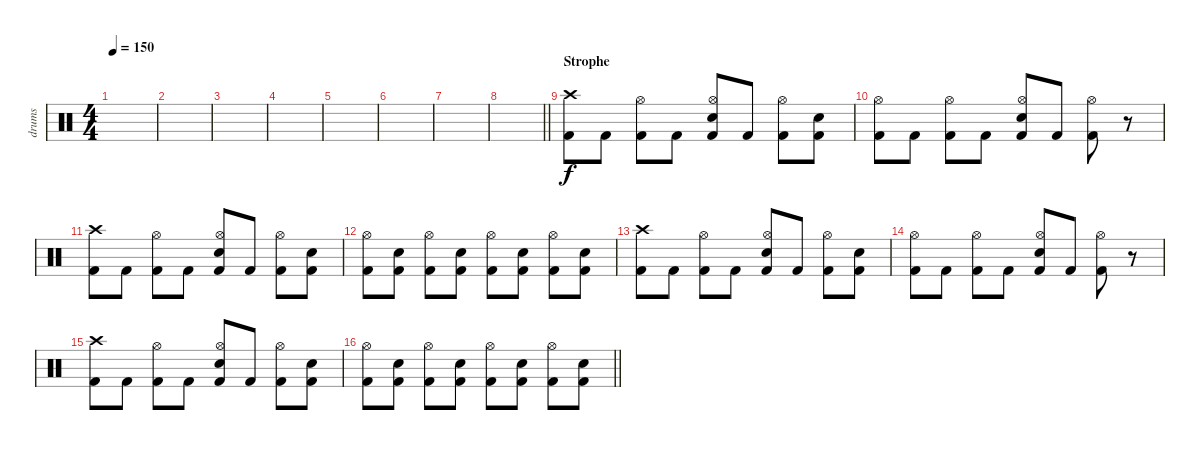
\track ("drums" "drums") {instrument percussion}
\staff {score}
\articulation defaults
\ts (4 4)
\tempo 150
\clef neutral
\ks c
|
|
|
|
|
|
|
\barLineRight lightlight
|
\section ("" "Strophe")
("Kick (hit) 2" "Crash high (hit)").8 "Kick (hit) 2".8 ("Kick (hit) 2" "Hi-Hat (open)").8 "Kick (hit) 2".8 ("Kick (hit) 2" "Snare (hit) 2" "Hi-Hat (open)").8 "Kick (hit) 2".8 ("Kick (hit) 2" "Hi-Hat (open)").8 ("Kick (hit) 2" "Snare (hit) 2").8 |
("Kick (hit) 2" "Hi-Hat (open)").8 "Kick (hit) 2".8 ("Kick (hit) 2" "Hi-Hat (open)").8 "Kick (hit) 2".8 ("Kick (hit) 2" "Snare (hit) 2" "Hi-Hat (open)").8 "Kick (hit) 2".8 ("Kick (hit) 2" "Hi-Hat (open)").8 r.8 |
("Kick (hit) 2" "Crash high (hit)").8 "Kick (hit) 2".8 ("Kick (hit) 2" "Hi-Hat (open)").8 "Kick (hit) 2".8 ("Kick (hit) 2" "Snare (hit) 2" "Hi-Hat (open)").8 "Kick (hit) 2".8 ("Kick (hit) 2" "Hi-Hat (open)").8 ("Kick (hit) 2" "Snare (hit) 2").8 |
("Kick (hit) 2" "Hi-Hat (open)").8 ("Kick (hit) 2" "Snare (hit) 2").8 ("Kick (hit) 2" "Hi-Hat (open)").8 ("Kick (hit) 2" "Snare (hit) 2").8 ("Kick (hit) 2" "Hi-Hat (open)").8 ("Kick (hit) 2" "Snare (hit) 2").8 ("Kick (hit) 2" "Hi-Hat (open)").8 ("Kick (hit) 2" "Snare (hit) 2").8 |
("Kick (hit) 2" "Crash high (hit)").8 "Kick (hit) 2".8 ("Kick (hit) 2" "Hi-Hat (open)").8 "Kick (hit) 2".8 ("Kick (hit) 2" "Snare (hit) 2" "Hi-Hat (open)").8 "Kick (hit) 2".8 ("Kick (hit) 2" "Hi-Hat (open)").8 ("Kick (hit) 2" "Snare (hit) 2").8 |
("Kick (hit) 2" "Hi-Hat (open)").8 "Kick (hit) 2".8 ("Kick (hit) 2" "Hi-Hat (open)").8 "Kick (hit) 2".8 ("Kick (hit) 2" "Snare (hit) 2" "Hi-Hat (open)").8 "Kick (hit) 2".8 ("Kick (hit) 2" "Hi-Hat (open)").8 r.8 |
("Kick (hit) 2" "Crash high (hit)").8 "Kick (hit) 2".8 ("Kick (hit) 2" "Hi-Hat (open)").8 "Kick (hit) 2".8 ("Kick (hit) 2" "Snare (hit) 2" "Hi-Hat (open)").8 "Kick (hit) 2".8 ("Kick (hit) 2" "Hi-Hat (open)").8 ("Kick (hit) 2" "Snare (hit) 2").8 |
\barLineRight lightlight
("Kick (hit) 2" "Hi-Hat (open)").8 ("Kick (hit) 2" "Snare (hit) 2").8 ("Kick (hit) 2" "Hi-Hat (open)").8 ("Kick (hit) 2" "Snare (hit) 2").8 ("Kick (hit) 2" "Hi-Hat (open)").8 ("Kick (hit) 2" "Snare (hit) 2").8 ("Kick (hit) 2" "Hi-Hat (open)").8 ("Kick (hit) 2" "Snare (hit) 2").8
